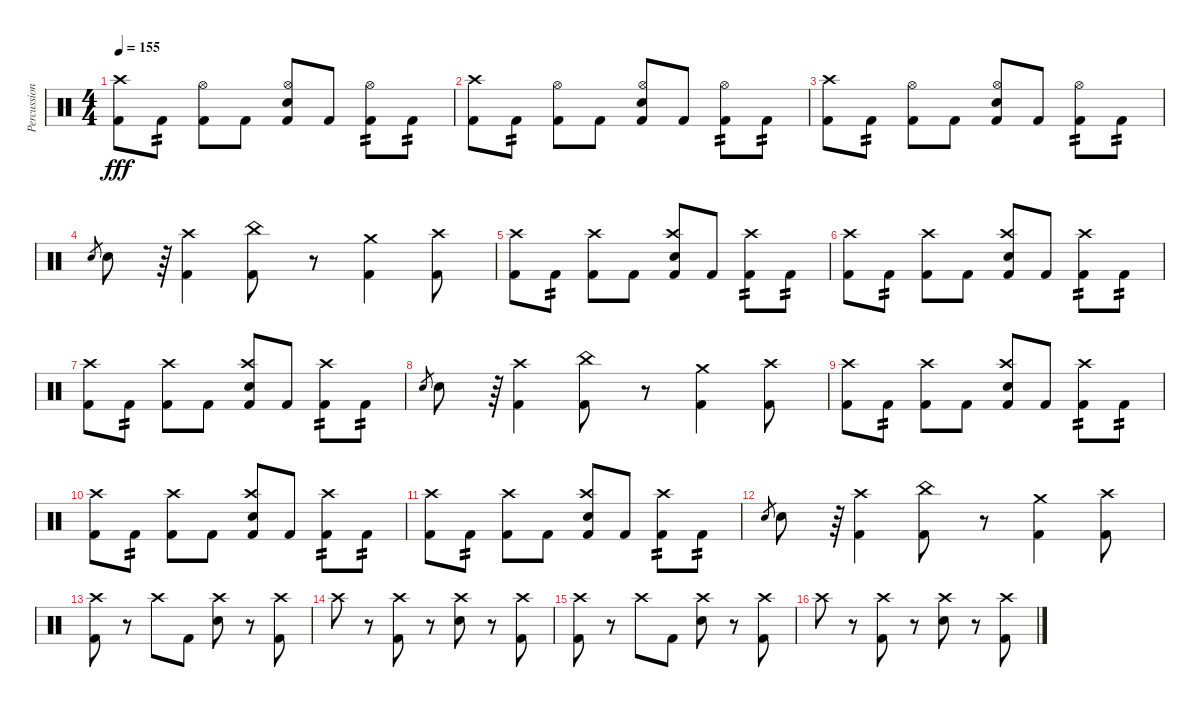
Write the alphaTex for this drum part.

\track ("Percussion" "Percussion") {instrument percussion}
\staff {score}
\articulation defaults
\ts (4 4)
\tempo 155
\clef neutral
\ks c
("Kick (hit) 2" "Crash high (hit)").8{dy fff} "Kick (hit) 2".8{tp 2} ("Kick (hit) 2" "Hi-Hat (open)").8 "Kick (hit) 2".8 ("Kick (hit) 2" "Hi-Hat (open)" "Electric Snare (hit)").8 "Kick (hit) 2".8 ("Kick (hit) 2" "Hi-Hat (open)").8{tp 2} "Kick (hit) 2".8{tp 2} |
("Kick (hit) 2" "Crash high (hit)").8 "Kick (hit) 2".8{tp 2} ("Kick (hit) 2" "Hi-Hat (open)").8 "Kick (hit) 2".8 ("Kick (hit) 2" "Hi-Hat (open)" "Electric Snare (hit)").8 "Kick (hit) 2".8 ("Kick (hit) 2" "Hi-Hat (open)").8{tp 2} "Kick (hit) 2".8{tp 2} |
("Kick (hit) 2" "Crash high (hit)").8 "Kick (hit) 2".8{tp 2} ("Kick (hit) 2" "Hi-Hat (open)").8 "Kick (hit) 2".8 ("Kick (hit) 2" "Hi-Hat (open)" "Electric Snare (hit)").8 "Kick (hit) 2".8 ("Kick (hit) 2" "Hi-Hat (open)").8{tp 2} "Kick (hit) 2".8{tp 2} |
"Electric Snare (hit)".8{gr} "Electric Snare (hit)".8 r.64 ("Kick (hit) 2" "Crash high (hit)").4 ("Kick (hit) 2" "China (hit)").8 r.8 ("Kick (hit) 2" "Crash medium (hit)").4 ("Kick (hit) 2" "Crash high (hit)").8 |
("Kick (hit) 2" "Crash high (hit)").8 "Kick (hit) 2".8{tp 2} ("Kick (hit) 2" "Crash high (hit)").8 "Kick (hit) 2".8 ("Kick (hit) 2" "Crash high (hit)" "Electric Snare (hit)").8 "Kick (hit) 2".8 ("Kick (hit) 2" "Crash high (hit)").8{tp 2} "Kick (hit) 2".8{tp 2} |
("Kick (hit) 2" "Crash high (hit)").8 "Kick (hit) 2".8{tp 2} ("Kick (hit) 2" "Crash high (hit)").8 "Kick (hit) 2".8 ("Kick (hit) 2" "Crash high (hit)" "Electric Snare (hit)").8 "Kick (hit) 2".8 ("Kick (hit) 2" "Crash high (hit)").8{tp 2} "Kick (hit) 2".8{tp 2} |
("Kick (hit) 2" "Crash high (hit)").8 "Kick (hit) 2".8{tp 2} ("Kick (hit) 2" "Crash high (hit)").8 "Kick (hit) 2".8 ("Kick (hit) 2" "Crash high (hit)" "Electric Snare (hit)").8 "Kick (hit) 2".8 ("Kick (hit) 2" "Crash high (hit)").8{tp 2} "Kick (hit) 2".8{tp 2} |
"Electric Snare (hit)".8{gr} "Electric Snare (hit)".8 r.64 ("Kick (hit) 2" "Crash high (hit)").4 ("Kick (hit) 2" "China (hit)").8 r.8 ("Kick (hit) 2" "Crash medium (hit)").4 ("Kick (hit) 2" "Crash high (hit)").8 |
("Kick (hit) 2" "Crash high (hit)").8 "Kick (hit) 2".8{tp 2} ("Kick (hit) 2" "Crash high (hit)").8 "Kick (hit) 2".8 ("Kick (hit) 2" "Crash high (hit)" "Electric Snare (hit)").8 "Kick (hit) 2".8 ("Kick (hit) 2" "Crash high (hit)").8{tp 2} "Kick (hit) 2".8{tp 2} |
("Kick (hit) 2" "Crash high (hit)").8 "Kick (hit) 2".8{tp 2} ("Kick (hit) 2" "Crash high (hit)").8 "Kick (hit) 2".8 ("Kick (hit) 2" "Crash high (hit)" "Electric Snare (hit)").8 "Kick (hit) 2".8 ("Kick (hit) 2" "Crash high (hit)").8{tp 2} "Kick (hit) 2".8{tp 2} |
("Kick (hit) 2" "Crash high (hit)").8 "Kick (hit) 2".8{tp 2} ("Kick (hit) 2" "Crash high (hit)").8 "Kick (hit) 2".8 ("Kick (hit) 2" "Crash high (hit)" "Electric Snare (hit)").8 "Kick (hit) 2".8 ("Kick (hit) 2" "Crash high (hit)").8{tp 2} "Kick (hit) 2".8{tp 2} |
"Electric Snare (hit)".8{gr} "Electric Snare (hit)".8 r.64 ("Kick (hit) 2" "Crash high (hit)").4 ("Kick (hit) 2" "China (hit)").8 r.8 ("Kick (hit) 2" "Crash medium (hit)").4 ("Kick (hit) 2" "Crash high (hit)").8 |
("Crash high (hit)" "Kick (hit) 2").8 r.8 "Crash high (hit)".8 "Kick (hit) 2".8 ("Crash high (hit)" "Electric Snare (hit)").8 r.8 ("Crash high (hit)" "Kick (hit) 2").8 |
"Crash high (hit)".8 r.8 ("Crash high (hit)" "Kick (hit) 2").8 r.8 ("Crash high (hit)" "Electric Snare (hit)").8 r.8 ("Crash high (hit)" "Kick (hit) 2").8 |
("Crash high (hit)" "Kick (hit) 2").8 r.8 "Crash high (hit)".8 "Kick (hit) 2".8 ("Crash high (hit)" "Electric Snare (hit)").8 r.8 ("Crash high (hit)" "Kick (hit) 2").8 |
"Crash high (hit)".8 r.8 ("Crash high (hit)" "Kick (hit) 2").8 r.8 ("Crash high (hit)" "Electric Snare (hit)").8 r.8 ("Crash high (hit)" "Kick (hit) 2").8
